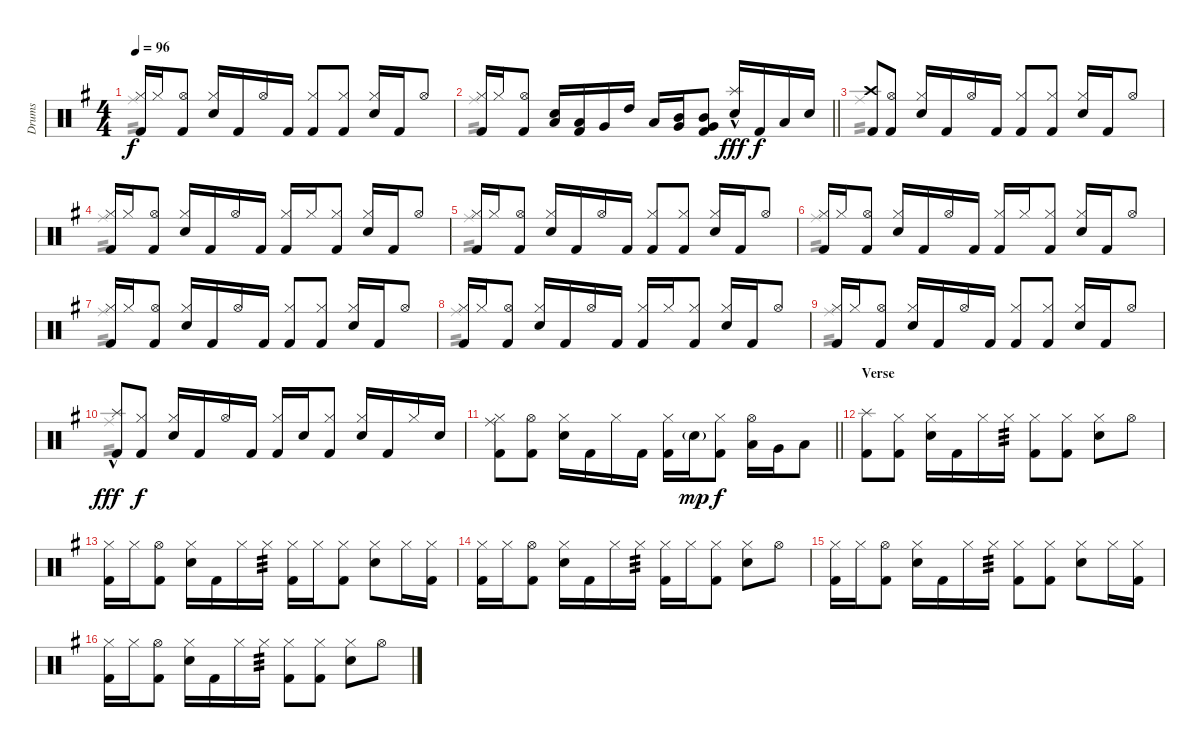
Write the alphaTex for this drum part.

\track ("Drums" "Drums") {instrument percussion}
\staff {score}
\articulation defaults
\voice
\ts (4 4)
\tempo 96
\clef neutral
\ks g
("Hi-Hat (closed)" "Kick (hit) 2").16{dy f} "Hi-Hat (closed)".16 ("Hi-Hat (open)" "Kick (hit) 2").8 ("Hi-Hat (closed)" "Electric Snare (hit)").16 "Kick (hit) 2".16 "Hi-Hat (open)".16 "Kick (hit) 2".16 ("Hi-Hat (closed)" "Kick (hit) 2").8 ("Hi-Hat (closed)" "Kick (hit) 2").8 ("Hi-Hat (closed)" "Electric Snare (hit)").16 "Kick (hit) 2".16 "Hi-Hat (open)".8 |
\barLineRight lightlight
("Hi-Hat (closed)" "Kick (hit) 2").16 "Hi-Hat (closed)".16 ("Hi-Hat (open)" "Kick (hit) 2").8 ("Electric Snare (hit)" "Low Tom (hit)").16 ("Low Tom (hit)" "Kick (hit) 2").16 "Very Low Tom (hit)".16 "High Tom (hit)".16 "Low Floor Tom (hit)".16 ("Mid Tom (hit)" "Very Low Tom (hit)").16 ("Mid Tom (hit)" "Very Low Tom (hit)" "Kick (hit) 2").8 ("Splash (hit)"{hac} "Electric Snare (hit)").16{dy fff} "Kick (hit) 2".16{dy f} "Low Tom (hit)".16 "Electric Snare (hit)".16 |
\section ("" "")
("Crash high (hit)" "Kick (hit) 2").8 ("Hi-Hat (open)" "Kick (hit) 2").8 ("Hi-Hat (closed)" "Electric Snare (hit)").16 "Kick (hit) 2".16 "Hi-Hat (open)".16 "Kick (hit) 2".16 ("Hi-Hat (closed)" "Kick (hit) 2").8 ("Hi-Hat (closed)" "Kick (hit) 2").8 ("Hi-Hat (closed)" "Electric Snare (hit)").16 "Kick (hit) 2".16 "Hi-Hat (open)".8 |
("Hi-Hat (closed)" "Kick (hit) 2").16 "Hi-Hat (closed)".16 ("Hi-Hat (open)" "Kick (hit) 2").8 ("Hi-Hat (closed)" "Electric Snare (hit)").16 "Kick (hit) 2".16 "Hi-Hat (open)".16 "Kick (hit) 2".16 ("Hi-Hat (closed)" "Kick (hit) 2").16 "Hi-Hat (closed)".16 ("Hi-Hat (closed)" "Kick (hit) 2").8 ("Hi-Hat (closed)" "Electric Snare (hit)").16 "Kick (hit) 2".16 "Hi-Hat (open)".8 |
("Hi-Hat (closed)" "Kick (hit) 2").16 "Hi-Hat (closed)".16 ("Hi-Hat (open)" "Kick (hit) 2").8 ("Hi-Hat (closed)" "Electric Snare (hit)").16 "Kick (hit) 2".16 "Hi-Hat (open)".16 "Kick (hit) 2".16 ("Hi-Hat (closed)" "Kick (hit) 2").8 ("Hi-Hat (closed)" "Kick (hit) 2").8 ("Hi-Hat (closed)" "Electric Snare (hit)").16 "Kick (hit) 2".16 "Hi-Hat (open)".8 |
("Hi-Hat (closed)" "Kick (hit) 2").16 "Hi-Hat (closed)".16 ("Hi-Hat (open)" "Kick (hit) 2").8 ("Hi-Hat (closed)" "Electric Snare (hit)").16 "Kick (hit) 2".16 "Hi-Hat (open)".16 "Kick (hit) 2".16 ("Hi-Hat (closed)" "Kick (hit) 2").16 "Hi-Hat (closed)".16 ("Hi-Hat (closed)" "Kick (hit) 2").8 ("Hi-Hat (closed)" "Electric Snare (hit)").16 "Kick (hit) 2".16 "Hi-Hat (open)".8 |
("Hi-Hat (closed)" "Kick (hit) 2").16 "Hi-Hat (closed)".16 ("Hi-Hat (open)" "Kick (hit) 2").8 ("Hi-Hat (closed)" "Electric Snare (hit)").16 "Kick (hit) 2".16 "Hi-Hat (open)".16 "Kick (hit) 2".16 ("Hi-Hat (closed)" "Kick (hit) 2").8 ("Hi-Hat (closed)" "Kick (hit) 2").8 ("Hi-Hat (closed)" "Electric Snare (hit)").16 "Kick (hit) 2".16 "Hi-Hat (open)".8 |
("Hi-Hat (closed)" "Kick (hit) 2").16 "Hi-Hat (closed)".16 ("Hi-Hat (open)" "Kick (hit) 2").8 ("Hi-Hat (closed)" "Electric Snare (hit)").16 "Kick (hit) 2".16 "Hi-Hat (open)".16 "Kick (hit) 2".16 ("Hi-Hat (closed)" "Kick (hit) 2").16 "Hi-Hat (closed)".16 ("Hi-Hat (closed)" "Kick (hit) 2").8 ("Hi-Hat (closed)" "Electric Snare (hit)").16 "Kick (hit) 2".16 "Hi-Hat (open)".8 |
("Hi-Hat (closed)" "Kick (hit) 2").16 "Hi-Hat (closed)".16 ("Hi-Hat (open)" "Kick (hit) 2").8 ("Hi-Hat (closed)" "Electric Snare (hit)").16 "Kick (hit) 2".16 "Hi-Hat (open)".16 "Kick (hit) 2".16 ("Hi-Hat (closed)" "Kick (hit) 2").8 ("Hi-Hat (closed)" "Kick (hit) 2").8 ("Hi-Hat (closed)" "Electric Snare (hit)").16 "Kick (hit) 2".16 "Hi-Hat (open)".8 |
("Splash (hit)"{hac} "Kick (hit) 2").8{dy fff} ("Hi-Hat (closed)" "Kick (hit) 2").8{dy f} ("Hi-Hat (closed)" "Electric Snare (hit)").16 "Kick (hit) 2".16 "Hi-Hat (open)".16 "Kick (hit) 2".16 ("Hi-Hat (closed)" "Kick (hit) 2").16 "Electric Snare (hit)".16 ("Hi-Hat (closed)" "Kick (hit) 2").8 ("Hi-Hat (closed)" "Electric Snare (hit)").16 "Kick (hit) 2".16 "Hi-Hat (closed)".16 "Electric Snare (hit)".16 |
\barLineRight lightlight
("Hi-Hat (closed)" "Ride (middle)" "Kick (hit) 2").8 ("Hi-Hat (open)" "Kick (hit) 2").8 ("Hi-Hat (closed)" "Electric Snare (hit)").16 "Kick (hit) 2".16 "Hi-Hat (closed)".16 "Kick (hit) 2".16 ("Hi-Hat (closed)" "Kick (hit) 2").16 "Electric Snare (hit)"{g}.16{dy mp} ("Hi-Hat (closed)" "Kick (hit) 2").8{dy f} ("Hi-Hat (open)" "Low Tom (hit)").16 "Very Low Tom (hit)".16 "Low Floor Tom (hit)".8 |
\section ("" "Verse")
("Splash (hit)" "Kick (hit) 2").8 ("Hi-Hat (closed)" "Kick (hit) 2").8 ("Hi-Hat (closed)" "Electric Snare (hit)").16 "Kick (hit) 2".16 "Hi-Hat (closed)".16 "Hi-Hat (closed)".16{tp 3} ("Hi-Hat (closed)" "Kick (hit) 2").8 ("Hi-Hat (closed)" "Kick (hit) 2").8 ("Hi-Hat (closed)" "Electric Snare (hit)").8 "Hi-Hat (open)".8 |
("Hi-Hat (closed)" "Kick (hit) 2").16 "Hi-Hat (closed)".16 ("Hi-Hat (open)" "Kick (hit) 2").8 ("Hi-Hat (closed)" "Electric Snare (hit)").16 "Kick (hit) 2".16 "Hi-Hat (closed)".16 "Hi-Hat (closed)".16{tp 3} ("Hi-Hat (closed)" "Kick (hit) 2").16 "Hi-Hat (closed)".16 ("Hi-Hat (closed)" "Kick (hit) 2").8 ("Hi-Hat (closed)" "Electric Snare (hit)").8 "Hi-Hat (closed)".16 ("Hi-Hat (closed)" "Kick (hit) 2").16 |
("Hi-Hat (closed)" "Kick (hit) 2").16 "Hi-Hat (closed)".16 ("Hi-Hat (open)" "Kick (hit) 2").8 ("Hi-Hat (closed)" "Electric Snare (hit)").16 "Kick (hit) 2".16 "Hi-Hat (closed)".16 "Hi-Hat (closed)".16{tp 3} ("Hi-Hat (closed)" "Kick (hit) 2").16 "Hi-Hat (closed)".16 ("Hi-Hat (closed)" "Kick (hit) 2").8 ("Hi-Hat (closed)" "Electric Snare (hit)").8 "Hi-Hat (open)".8 |
("Hi-Hat (closed)" "Kick (hit) 2").16 "Hi-Hat (closed)".16 ("Hi-Hat (open)" "Kick (hit) 2").8 ("Hi-Hat (closed)" "Electric Snare (hit)").16 "Kick (hit) 2".16 "Hi-Hat (closed)".16 "Hi-Hat (closed)".16{tp 3} ("Hi-Hat (closed)" "Kick (hit) 2").8 ("Hi-Hat (closed)" "Kick (hit) 2").8 ("Hi-Hat (closed)" "Electric Snare (hit)").8 "Hi-Hat (closed)".16 ("Hi-Hat (closed)" "Kick (hit) 2").16 |
("Hi-Hat (closed)" "Kick (hit) 2").16 "Hi-Hat (closed)".16 ("Hi-Hat (open)" "Kick (hit) 2").8 ("Hi-Hat (closed)" "Electric Snare (hit)").16 "Kick (hit) 2".16 "Hi-Hat (closed)".16 "Hi-Hat (closed)".16{tp 3} ("Hi-Hat (closed)" "Kick (hit) 2").8 ("Hi-Hat (closed)" "Kick (hit) 2").8 ("Hi-Hat (closed)" "Electric Snare (hit)").8 "Hi-Hat (open)".8
\voice
\clef neutral
\ottava regular
\simile none
\ks g "Ride (middle)".1{tp 2 dy f}
|
\barLineRight lightlight "Ride (middle)".1{tp 2}
|
"Ride (middle)".1{tp 2} |
"Ride (middle)".1{tp 2} |
"Ride (middle)".1{tp 2} |
"Ride (middle)".1{tp 2} |
"Ride (middle)".1{tp 2} |
"Ride (middle)".1{tp 2} |
"Ride (middle)".1{tp 2} |
"Ride (middle)".1{tp 2} |
\barLineRight lightlight
|
|
|
|
|
